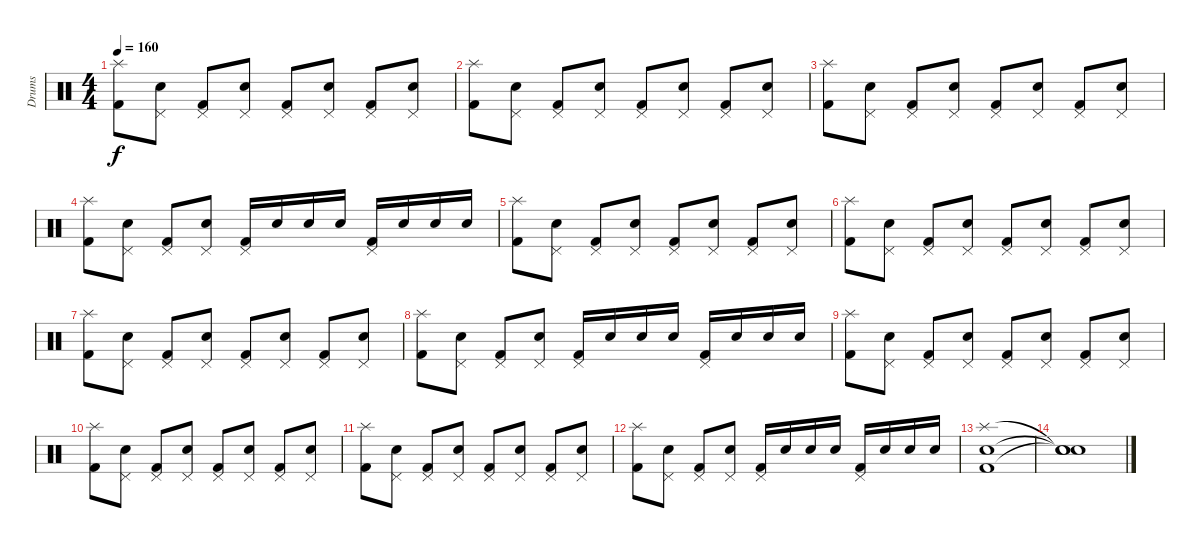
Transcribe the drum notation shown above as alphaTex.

\track ("Drums" "Drums") {instrument percussion}
\staff {score}
\articulation defaults
\ts (4 4)
\tempo 160
\clef neutral
\ks c
("Splash (hit)" "Kick (hit) 2").8{dy f} ("Pedal Hi-Hat (hit)" "Electric Snare (hit)").8 ("Pedal Hi-Hat (hit)" "Kick (hit) 2").8 ("Pedal Hi-Hat (hit)" "Electric Snare (hit)").8 ("Pedal Hi-Hat (hit)" "Kick (hit) 2").8 ("Pedal Hi-Hat (hit)" "Electric Snare (hit)").8 ("Pedal Hi-Hat (hit)" "Kick (hit) 2").8 ("Pedal Hi-Hat (hit)" "Electric Snare (hit)").8 |
("Splash (hit)" "Kick (hit) 2").8 ("Pedal Hi-Hat (hit)" "Electric Snare (hit)").8 ("Pedal Hi-Hat (hit)" "Kick (hit) 2").8 ("Pedal Hi-Hat (hit)" "Electric Snare (hit)").8 ("Pedal Hi-Hat (hit)" "Kick (hit) 2").8 ("Pedal Hi-Hat (hit)" "Electric Snare (hit)").8 ("Pedal Hi-Hat (hit)" "Kick (hit) 2").8 ("Pedal Hi-Hat (hit)" "Electric Snare (hit)").8 |
("Splash (hit)" "Kick (hit) 2").8 ("Pedal Hi-Hat (hit)" "Electric Snare (hit)").8 ("Pedal Hi-Hat (hit)" "Kick (hit) 2").8 ("Pedal Hi-Hat (hit)" "Electric Snare (hit)").8 ("Pedal Hi-Hat (hit)" "Kick (hit) 2").8 ("Pedal Hi-Hat (hit)" "Electric Snare (hit)").8 ("Pedal Hi-Hat (hit)" "Kick (hit) 2").8 ("Pedal Hi-Hat (hit)" "Electric Snare (hit)").8 |
("Splash (hit)" "Kick (hit) 2").8 ("Pedal Hi-Hat (hit)" "Electric Snare (hit)").8 ("Pedal Hi-Hat (hit)" "Kick (hit) 2").8 ("Pedal Hi-Hat (hit)" "Electric Snare (hit)").8 ("Pedal Hi-Hat (hit)" "Kick (hit) 2").16 "Electric Snare (hit)".16 "Electric Snare (hit)".16 "Electric Snare (hit)".16 ("Pedal Hi-Hat (hit)" "Kick (hit) 2").16 "Electric Snare (hit)".16 "Electric Snare (hit)".16 "Electric Snare (hit)".16 |
("Splash (hit)" "Kick (hit) 2").8 ("Pedal Hi-Hat (hit)" "Electric Snare (hit)").8 ("Pedal Hi-Hat (hit)" "Kick (hit) 2").8 ("Pedal Hi-Hat (hit)" "Electric Snare (hit)").8 ("Pedal Hi-Hat (hit)" "Kick (hit) 2").8 ("Pedal Hi-Hat (hit)" "Electric Snare (hit)").8 ("Pedal Hi-Hat (hit)" "Kick (hit) 2").8 ("Pedal Hi-Hat (hit)" "Electric Snare (hit)").8 |
("Splash (hit)" "Kick (hit) 2").8 ("Pedal Hi-Hat (hit)" "Electric Snare (hit)").8 ("Pedal Hi-Hat (hit)" "Kick (hit) 2").8 ("Pedal Hi-Hat (hit)" "Electric Snare (hit)").8 ("Pedal Hi-Hat (hit)" "Kick (hit) 2").8 ("Pedal Hi-Hat (hit)" "Electric Snare (hit)").8 ("Pedal Hi-Hat (hit)" "Kick (hit) 2").8 ("Pedal Hi-Hat (hit)" "Electric Snare (hit)").8 |
("Splash (hit)" "Kick (hit) 2").8 ("Pedal Hi-Hat (hit)" "Electric Snare (hit)").8 ("Pedal Hi-Hat (hit)" "Kick (hit) 2").8 ("Pedal Hi-Hat (hit)" "Electric Snare (hit)").8 ("Pedal Hi-Hat (hit)" "Kick (hit) 2").8 ("Pedal Hi-Hat (hit)" "Electric Snare (hit)").8 ("Pedal Hi-Hat (hit)" "Kick (hit) 2").8 ("Pedal Hi-Hat (hit)" "Electric Snare (hit)").8 |
("Splash (hit)" "Kick (hit) 2").8 ("Pedal Hi-Hat (hit)" "Electric Snare (hit)").8 ("Pedal Hi-Hat (hit)" "Kick (hit) 2").8 ("Pedal Hi-Hat (hit)" "Electric Snare (hit)").8 ("Pedal Hi-Hat (hit)" "Kick (hit) 2").16 "Electric Snare (hit)".16 "Electric Snare (hit)".16 "Electric Snare (hit)".16 ("Pedal Hi-Hat (hit)" "Kick (hit) 2").16 "Electric Snare (hit)".16 "Electric Snare (hit)".16 "Electric Snare (hit)".16 |
("Splash (hit)" "Kick (hit) 2").8 ("Pedal Hi-Hat (hit)" "Electric Snare (hit)").8 ("Pedal Hi-Hat (hit)" "Kick (hit) 2").8 ("Pedal Hi-Hat (hit)" "Electric Snare (hit)").8 ("Pedal Hi-Hat (hit)" "Kick (hit) 2").8 ("Pedal Hi-Hat (hit)" "Electric Snare (hit)").8 ("Pedal Hi-Hat (hit)" "Kick (hit) 2").8 ("Pedal Hi-Hat (hit)" "Electric Snare (hit)").8 |
("Splash (hit)" "Kick (hit) 2").8 ("Pedal Hi-Hat (hit)" "Electric Snare (hit)").8 ("Pedal Hi-Hat (hit)" "Kick (hit) 2").8 ("Pedal Hi-Hat (hit)" "Electric Snare (hit)").8 ("Pedal Hi-Hat (hit)" "Kick (hit) 2").8 ("Pedal Hi-Hat (hit)" "Electric Snare (hit)").8 ("Pedal Hi-Hat (hit)" "Kick (hit) 2").8 ("Pedal Hi-Hat (hit)" "Electric Snare (hit)").8 |
("Splash (hit)" "Kick (hit) 2").8 ("Pedal Hi-Hat (hit)" "Electric Snare (hit)").8 ("Pedal Hi-Hat (hit)" "Kick (hit) 2").8 ("Pedal Hi-Hat (hit)" "Electric Snare (hit)").8 ("Pedal Hi-Hat (hit)" "Kick (hit) 2").8 ("Pedal Hi-Hat (hit)" "Electric Snare (hit)").8 ("Pedal Hi-Hat (hit)" "Kick (hit) 2").8 ("Pedal Hi-Hat (hit)" "Electric Snare (hit)").8 |
("Splash (hit)" "Kick (hit) 2").8 ("Pedal Hi-Hat (hit)" "Electric Snare (hit)").8 ("Pedal Hi-Hat (hit)" "Kick (hit) 2").8 ("Pedal Hi-Hat (hit)" "Electric Snare (hit)").8 ("Pedal Hi-Hat (hit)" "Kick (hit) 2").16 "Electric Snare (hit)".16 "Electric Snare (hit)".16 "Electric Snare (hit)".16 ("Pedal Hi-Hat (hit)" "Kick (hit) 2").16 "Electric Snare (hit)".16 "Electric Snare (hit)".16 "Electric Snare (hit)".16 |
("Splash (hit)" "Electric Snare (hit)" "Kick (hit) 2").1 |
("Snare (hit)"{t} "Snare (hit)"{t} "Snare (hit)"{t}).1
